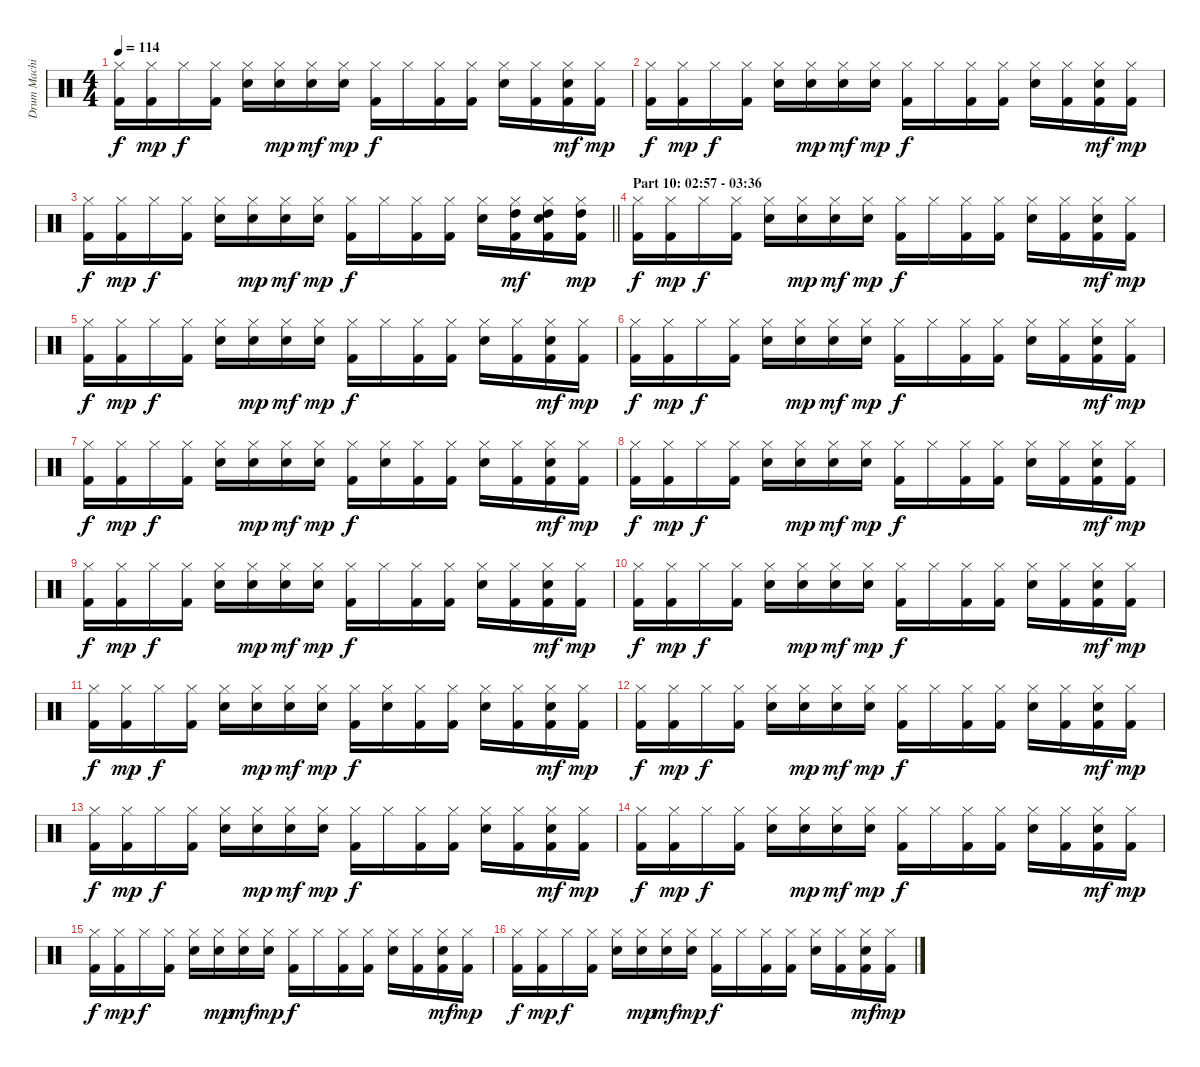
\track ("Drum Machine" "Drum Machi") {instrument percussion}
\staff {score}
\articulation defaults
\ts (4 4)
\tempo 114
\clef neutral
\ks c
("Hi-Hat (closed)" "Kick (hit) 2").16{dy f} ("Hi-Hat (closed)" "Kick (hit) 2").16{dy mp} "Hi-Hat (closed)".16{dy f} ("Hi-Hat (closed)" "Kick (hit) 2").16 ("Hi-Hat (closed)" "Electric Snare (hit)").16 ("Hi-Hat (closed)" "Electric Snare (hit)").16{dy mp} ("Hi-Hat (closed)" "Electric Snare (hit)").16{dy mf} ("Hi-Hat (closed)" "Electric Snare (hit)").16{dy mp} ("Hi-Hat (closed)" "Kick (hit) 2").16{dy f} "Hi-Hat (closed)".16 ("Hi-Hat (closed)" "Kick (hit) 2").16 ("Hi-Hat (closed)" "Kick (hit) 2").16 ("Hi-Hat (closed)" "Electric Snare (hit)").16 ("Hi-Hat (closed)" "Kick (hit) 2").16 ("Hi-Hat (closed)" "Electric Snare (hit)" "Kick (hit) 2").16{dy mf} ("Hi-Hat (closed)" "Kick (hit) 2").16{dy mp} |
("Hi-Hat (closed)" "Kick (hit) 2").16{dy f} ("Hi-Hat (closed)" "Kick (hit) 2").16{dy mp} "Hi-Hat (closed)".16{dy f} ("Hi-Hat (closed)" "Kick (hit) 2").16 ("Hi-Hat (closed)" "Electric Snare (hit)").16 ("Hi-Hat (closed)" "Electric Snare (hit)").16{dy mp} ("Hi-Hat (closed)" "Electric Snare (hit)").16{dy mf} ("Hi-Hat (closed)" "Electric Snare (hit)").16{dy mp} ("Hi-Hat (closed)" "Kick (hit) 2").16{dy f} "Hi-Hat (closed)".16 ("Hi-Hat (closed)" "Kick (hit) 2").16 ("Hi-Hat (closed)" "Kick (hit) 2").16 ("Hi-Hat (closed)" "Electric Snare (hit)").16 ("Hi-Hat (closed)" "Kick (hit) 2").16 ("Hi-Hat (closed)" "Electric Snare (hit)" "Kick (hit) 2").16{dy mf} ("Hi-Hat (closed)" "Kick (hit) 2").16{dy mp} |
\barLineRight lightlight
("Hi-Hat (closed)" "Kick (hit) 2").16{dy f} ("Hi-Hat (closed)" "Kick (hit) 2").16{dy mp} "Hi-Hat (closed)".16{dy f} ("Hi-Hat (closed)" "Kick (hit) 2").16 ("Hi-Hat (closed)" "Electric Snare (hit)").16 ("Hi-Hat (closed)" "Electric Snare (hit)").16{dy mp} ("Hi-Hat (closed)" "Electric Snare (hit)").16{dy mf} ("Hi-Hat (closed)" "Electric Snare (hit)").16{dy mp} ("Hi-Hat (closed)" "Kick (hit) 2").16{dy f} "Hi-Hat (closed)".16 ("Hi-Hat (closed)" "Kick (hit) 2").16 ("Hi-Hat (closed)" "Kick (hit) 2").16 ("Hi-Hat (closed)" "Electric Snare (hit)").16 ("Hi-Hat (closed)" "High Tom (hit)" "Kick (hit) 2").16{dy mf} ("Hi-Hat (closed)" "High Tom (hit)" "Electric Snare (hit)" "Kick (hit) 2").16 ("Hi-Hat (closed)" "High Tom (hit)" "Kick (hit) 2").16{dy mp} |
\section ("" "Part 10: 02:57 - 03:36")
("Hi-Hat (closed)" "Kick (hit) 2").16{dy f} ("Hi-Hat (closed)" "Kick (hit) 2").16{dy mp} "Hi-Hat (closed)".16{dy f} ("Hi-Hat (closed)" "Kick (hit) 2").16 ("Hi-Hat (closed)" "Electric Snare (hit)").16 ("Hi-Hat (closed)" "Electric Snare (hit)").16{dy mp} ("Hi-Hat (closed)" "Electric Snare (hit)").16{dy mf} ("Hi-Hat (closed)" "Electric Snare (hit)").16{dy mp} ("Hi-Hat (closed)" "Kick (hit) 2").16{dy f} "Hi-Hat (closed)".16 ("Hi-Hat (closed)" "Kick (hit) 2").16 ("Hi-Hat (closed)" "Kick (hit) 2").16 ("Hi-Hat (closed)" "Electric Snare (hit)").16 ("Hi-Hat (closed)" "Kick (hit) 2").16 ("Hi-Hat (closed)" "Electric Snare (hit)" "Kick (hit) 2").16{dy mf} ("Hi-Hat (closed)" "Kick (hit) 2").16{dy mp} |
("Hi-Hat (closed)" "Kick (hit) 2").16{dy f} ("Hi-Hat (closed)" "Kick (hit) 2").16{dy mp} "Hi-Hat (closed)".16{dy f} ("Hi-Hat (closed)" "Kick (hit) 2").16 ("Hi-Hat (closed)" "Electric Snare (hit)").16 ("Hi-Hat (closed)" "Electric Snare (hit)").16{dy mp} ("Hi-Hat (closed)" "Electric Snare (hit)").16{dy mf} ("Hi-Hat (closed)" "Electric Snare (hit)").16{dy mp} ("Hi-Hat (closed)" "Kick (hit) 2").16{dy f} "Hi-Hat (closed)".16 ("Hi-Hat (closed)" "Kick (hit) 2").16 ("Hi-Hat (closed)" "Kick (hit) 2").16 ("Hi-Hat (closed)" "Electric Snare (hit)").16 ("Hi-Hat (closed)" "Kick (hit) 2").16 ("Hi-Hat (closed)" "Electric Snare (hit)" "Kick (hit) 2").16{dy mf} ("Hi-Hat (closed)" "Kick (hit) 2").16{dy mp} |
("Hi-Hat (closed)" "Kick (hit) 2").16{dy f} ("Hi-Hat (closed)" "Kick (hit) 2").16{dy mp} "Hi-Hat (closed)".16{dy f} ("Hi-Hat (closed)" "Kick (hit) 2").16 ("Hi-Hat (closed)" "Electric Snare (hit)").16 ("Hi-Hat (closed)" "Electric Snare (hit)").16{dy mp} ("Hi-Hat (closed)" "Electric Snare (hit)").16{dy mf} ("Hi-Hat (closed)" "Electric Snare (hit)").16{dy mp} ("Hi-Hat (closed)" "Kick (hit) 2").16{dy f} "Hi-Hat (closed)".16 ("Hi-Hat (closed)" "Kick (hit) 2").16 ("Hi-Hat (closed)" "Kick (hit) 2").16 ("Hi-Hat (closed)" "Electric Snare (hit)").16 ("Hi-Hat (closed)" "Kick (hit) 2").16 ("Hi-Hat (closed)" "Electric Snare (hit)" "Kick (hit) 2").16{dy mf} ("Hi-Hat (closed)" "Kick (hit) 2").16{dy mp} |
("Hi-Hat (closed)" "Kick (hit) 2").16{dy f} ("Hi-Hat (closed)" "Kick (hit) 2").16{dy mp} "Hi-Hat (closed)".16{dy f} ("Hi-Hat (closed)" "Kick (hit) 2").16 ("Hi-Hat (closed)" "Electric Snare (hit)").16 ("Hi-Hat (closed)" "Electric Snare (hit)").16{dy mp} ("Hi-Hat (closed)" "Electric Snare (hit)").16{dy mf} ("Hi-Hat (closed)" "Electric Snare (hit)").16{dy mp} ("Hi-Hat (closed)" "Kick (hit) 2").16{dy f} ("Hi-Hat (closed)" "Electric Snare (hit)").16 ("Hi-Hat (closed)" "Kick (hit) 2").16 ("Hi-Hat (closed)" "Kick (hit) 2").16 ("Hi-Hat (closed)" "Electric Snare (hit)").16 ("Hi-Hat (closed)" "Kick (hit) 2").16 ("Hi-Hat (closed)" "Electric Snare (hit)" "Kick (hit) 2").16{dy mf} ("Hi-Hat (closed)" "Kick (hit) 2").16{dy mp} |
("Hi-Hat (closed)" "Kick (hit) 2").16{dy f} ("Hi-Hat (closed)" "Kick (hit) 2").16{dy mp} "Hi-Hat (closed)".16{dy f} ("Hi-Hat (closed)" "Kick (hit) 2").16 ("Hi-Hat (closed)" "Electric Snare (hit)").16 ("Hi-Hat (closed)" "Electric Snare (hit)").16{dy mp} ("Hi-Hat (closed)" "Electric Snare (hit)").16{dy mf} ("Hi-Hat (closed)" "Electric Snare (hit)").16{dy mp} ("Hi-Hat (closed)" "Kick (hit) 2").16{dy f} "Hi-Hat (closed)".16 ("Hi-Hat (closed)" "Kick (hit) 2").16 ("Hi-Hat (closed)" "Kick (hit) 2").16 ("Hi-Hat (closed)" "Electric Snare (hit)").16 ("Hi-Hat (closed)" "Kick (hit) 2").16 ("Hi-Hat (closed)" "Electric Snare (hit)" "Kick (hit) 2").16{dy mf} ("Hi-Hat (closed)" "Kick (hit) 2").16{dy mp} |
("Hi-Hat (closed)" "Kick (hit) 2").16{dy f} ("Hi-Hat (closed)" "Kick (hit) 2").16{dy mp} "Hi-Hat (closed)".16{dy f} ("Hi-Hat (closed)" "Kick (hit) 2").16 ("Hi-Hat (closed)" "Electric Snare (hit)").16 ("Hi-Hat (closed)" "Electric Snare (hit)").16{dy mp} ("Hi-Hat (closed)" "Electric Snare (hit)").16{dy mf} ("Hi-Hat (closed)" "Electric Snare (hit)").16{dy mp} ("Hi-Hat (closed)" "Kick (hit) 2").16{dy f} "Hi-Hat (closed)".16 ("Hi-Hat (closed)" "Kick (hit) 2").16 ("Hi-Hat (closed)" "Kick (hit) 2").16 ("Hi-Hat (closed)" "Electric Snare (hit)").16 ("Hi-Hat (closed)" "Kick (hit) 2").16 ("Hi-Hat (closed)" "Electric Snare (hit)" "Kick (hit) 2").16{dy mf} ("Hi-Hat (closed)" "Kick (hit) 2").16{dy mp} |
("Hi-Hat (closed)" "Kick (hit) 2").16{dy f} ("Hi-Hat (closed)" "Kick (hit) 2").16{dy mp} "Hi-Hat (closed)".16{dy f} ("Hi-Hat (closed)" "Kick (hit) 2").16 ("Hi-Hat (closed)" "Electric Snare (hit)").16 ("Hi-Hat (closed)" "Electric Snare (hit)").16{dy mp} ("Hi-Hat (closed)" "Electric Snare (hit)").16{dy mf} ("Hi-Hat (closed)" "Electric Snare (hit)").16{dy mp} ("Hi-Hat (closed)" "Kick (hit) 2").16{dy f} "Hi-Hat (closed)".16 ("Hi-Hat (closed)" "Kick (hit) 2").16 ("Hi-Hat (closed)" "Kick (hit) 2").16 ("Hi-Hat (closed)" "Electric Snare (hit)").16 ("Hi-Hat (closed)" "Kick (hit) 2").16 ("Hi-Hat (closed)" "Electric Snare (hit)" "Kick (hit) 2").16{dy mf} ("Hi-Hat (closed)" "Kick (hit) 2").16{dy mp} |
("Hi-Hat (closed)" "Kick (hit) 2").16{dy f} ("Hi-Hat (closed)" "Kick (hit) 2").16{dy mp} "Hi-Hat (closed)".16{dy f} ("Hi-Hat (closed)" "Kick (hit) 2").16 ("Hi-Hat (closed)" "Electric Snare (hit)").16 ("Hi-Hat (closed)" "Electric Snare (hit)").16{dy mp} ("Hi-Hat (closed)" "Electric Snare (hit)").16{dy mf} ("Hi-Hat (closed)" "Electric Snare (hit)").16{dy mp} ("Hi-Hat (closed)" "Kick (hit) 2").16{dy f} ("Hi-Hat (closed)" "Electric Snare (hit)").16 ("Hi-Hat (closed)" "Kick (hit) 2").16 ("Hi-Hat (closed)" "Kick (hit) 2").16 ("Hi-Hat (closed)" "Electric Snare (hit)").16 ("Hi-Hat (closed)" "Kick (hit) 2").16 ("Hi-Hat (closed)" "Electric Snare (hit)" "Kick (hit) 2").16{dy mf} ("Hi-Hat (closed)" "Kick (hit) 2").16{dy mp} |
("Hi-Hat (closed)" "Kick (hit) 2").16{dy f} ("Hi-Hat (closed)" "Kick (hit) 2").16{dy mp} "Hi-Hat (closed)".16{dy f} ("Hi-Hat (closed)" "Kick (hit) 2").16 ("Hi-Hat (closed)" "Electric Snare (hit)").16 ("Hi-Hat (closed)" "Electric Snare (hit)").16{dy mp} ("Hi-Hat (closed)" "Electric Snare (hit)").16{dy mf} ("Hi-Hat (closed)" "Electric Snare (hit)").16{dy mp} ("Hi-Hat (closed)" "Kick (hit) 2").16{dy f} "Hi-Hat (closed)".16 ("Hi-Hat (closed)" "Kick (hit) 2").16 ("Hi-Hat (closed)" "Kick (hit) 2").16 ("Hi-Hat (closed)" "Electric Snare (hit)").16 ("Hi-Hat (closed)" "Kick (hit) 2").16 ("Hi-Hat (closed)" "Electric Snare (hit)" "Kick (hit) 2").16{dy mf} ("Hi-Hat (closed)" "Kick (hit) 2").16{dy mp} |
("Hi-Hat (closed)" "Kick (hit) 2").16{dy f} ("Hi-Hat (closed)" "Kick (hit) 2").16{dy mp} "Hi-Hat (closed)".16{dy f} ("Hi-Hat (closed)" "Kick (hit) 2").16 ("Hi-Hat (closed)" "Electric Snare (hit)").16 ("Hi-Hat (closed)" "Electric Snare (hit)").16{dy mp} ("Hi-Hat (closed)" "Electric Snare (hit)").16{dy mf} ("Hi-Hat (closed)" "Electric Snare (hit)").16{dy mp} ("Hi-Hat (closed)" "Kick (hit) 2").16{dy f} "Hi-Hat (closed)".16 ("Hi-Hat (closed)" "Kick (hit) 2").16 ("Hi-Hat (closed)" "Kick (hit) 2").16 ("Hi-Hat (closed)" "Electric Snare (hit)").16 ("Hi-Hat (closed)" "Kick (hit) 2").16 ("Hi-Hat (closed)" "Electric Snare (hit)" "Kick (hit) 2").16{dy mf} ("Hi-Hat (closed)" "Kick (hit) 2").16{dy mp} |
("Hi-Hat (closed)" "Kick (hit) 2").16{dy f} ("Hi-Hat (closed)" "Kick (hit) 2").16{dy mp} "Hi-Hat (closed)".16{dy f} ("Hi-Hat (closed)" "Kick (hit) 2").16 ("Hi-Hat (closed)" "Electric Snare (hit)").16 ("Hi-Hat (closed)" "Electric Snare (hit)").16{dy mp} ("Hi-Hat (closed)" "Electric Snare (hit)").16{dy mf} ("Hi-Hat (closed)" "Electric Snare (hit)").16{dy mp} ("Hi-Hat (closed)" "Kick (hit) 2").16{dy f} "Hi-Hat (closed)".16 ("Hi-Hat (closed)" "Kick (hit) 2").16 ("Hi-Hat (closed)" "Kick (hit) 2").16 ("Hi-Hat (closed)" "Electric Snare (hit)").16 ("Hi-Hat (closed)" "Kick (hit) 2").16 ("Hi-Hat (closed)" "Electric Snare (hit)" "Kick (hit) 2").16{dy mf} ("Hi-Hat (closed)" "Kick (hit) 2").16{dy mp} |
("Hi-Hat (closed)" "Kick (hit) 2").16{dy f} ("Hi-Hat (closed)" "Kick (hit) 2").16{dy mp} "Hi-Hat (closed)".16{dy f} ("Hi-Hat (closed)" "Kick (hit) 2").16 ("Hi-Hat (closed)" "Electric Snare (hit)").16 ("Hi-Hat (closed)" "Electric Snare (hit)").16{dy mp} ("Hi-Hat (closed)" "Electric Snare (hit)").16{dy mf} ("Hi-Hat (closed)" "Electric Snare (hit)").16{dy mp} ("Hi-Hat (closed)" "Kick (hit) 2").16{dy f} "Hi-Hat (closed)".16 ("Hi-Hat (closed)" "Kick (hit) 2").16 ("Hi-Hat (closed)" "Kick (hit) 2").16 ("Hi-Hat (closed)" "Electric Snare (hit)").16 ("Hi-Hat (closed)" "Kick (hit) 2").16 ("Hi-Hat (closed)" "Electric Snare (hit)" "Kick (hit) 2").16{dy mf} ("Hi-Hat (closed)" "Kick (hit) 2").16{dy mp} |
("Hi-Hat (closed)" "Kick (hit) 2").16{dy f} ("Hi-Hat (closed)" "Kick (hit) 2").16{dy mp} "Hi-Hat (closed)".16{dy f} ("Hi-Hat (closed)" "Kick (hit) 2").16 ("Hi-Hat (closed)" "Electric Snare (hit)").16 ("Hi-Hat (closed)" "Electric Snare (hit)").16{dy mp} ("Hi-Hat (closed)" "Electric Snare (hit)").16{dy mf} ("Hi-Hat (closed)" "Electric Snare (hit)").16{dy mp} ("Hi-Hat (closed)" "Kick (hit) 2").16{dy f} "Hi-Hat (closed)".16 ("Hi-Hat (closed)" "Kick (hit) 2").16 ("Hi-Hat (closed)" "Kick (hit) 2").16 ("Hi-Hat (closed)" "Electric Snare (hit)").16 ("Hi-Hat (closed)" "Kick (hit) 2").16 ("Hi-Hat (closed)" "Electric Snare (hit)" "Kick (hit) 2").16{dy mf} ("Hi-Hat (closed)" "Kick (hit) 2").16{dy mp}
